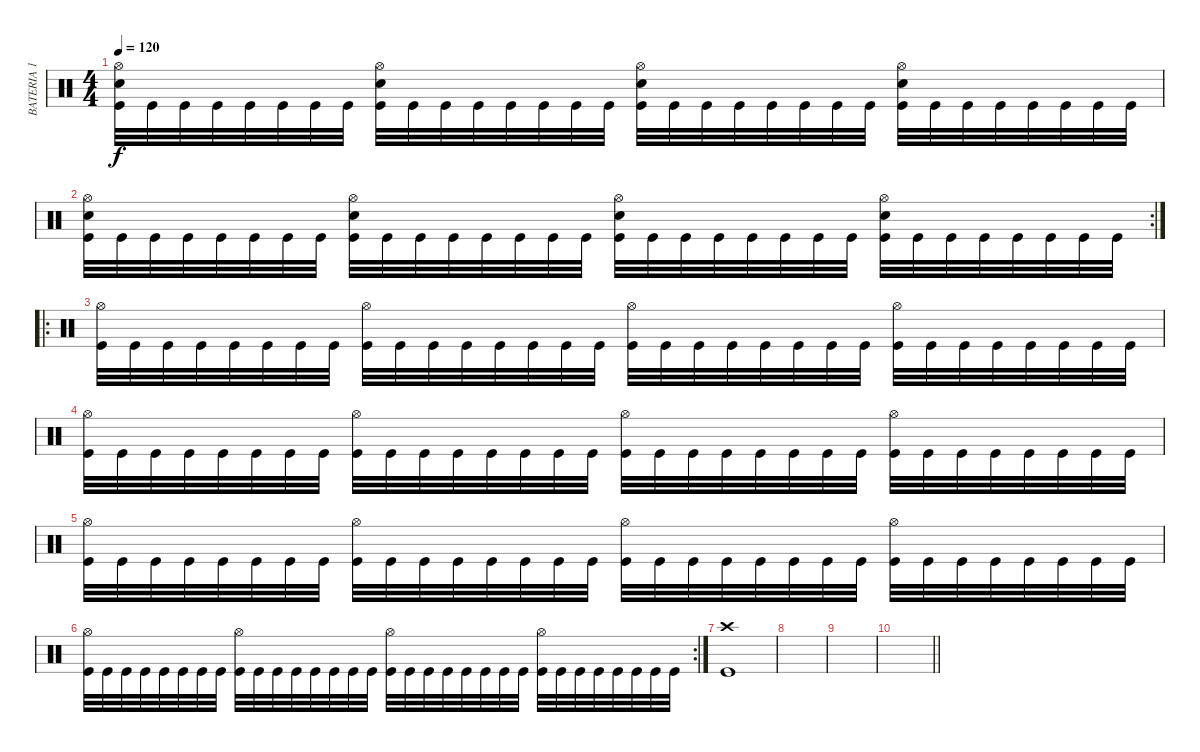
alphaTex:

\track ("BATERIA 1" "BATERIA 1") {instrument percussion}
\staff {score}
\articulation defaults
\ts (4 4)
\tempo 120
\clef neutral
\ks c
("Kick (hit)" "Snare (hit) 2" "Hi-Hat (open)").32{dy f} "Kick (hit)".32 "Kick (hit)".32 "Kick (hit)".32 "Kick (hit)".32 "Kick (hit)".32 "Kick (hit)".32 "Kick (hit)".32 ("Kick (hit)" "Snare (hit) 2" "Hi-Hat (open)").32 "Kick (hit)".32 "Kick (hit)".32 "Kick (hit)".32 "Kick (hit)".32 "Kick (hit)".32 "Kick (hit)".32 "Kick (hit)".32 ("Kick (hit)" "Snare (hit) 2" "Hi-Hat (open)").32 "Kick (hit)".32 "Kick (hit)".32 "Kick (hit)".32 "Kick (hit)".32 "Kick (hit)".32 "Kick (hit)".32 "Kick (hit)".32 ("Kick (hit)" "Snare (hit) 2" "Hi-Hat (open)").32 "Kick (hit)".32 "Kick (hit)".32 "Kick (hit)".32 "Kick (hit)".32 "Kick (hit)".32 "Kick (hit)".32 "Kick (hit)".32 |
\rc 2
("Kick (hit)" "Snare (hit) 2" "Hi-Hat (open)").32 "Kick (hit)".32 "Kick (hit)".32 "Kick (hit)".32 "Kick (hit)".32 "Kick (hit)".32 "Kick (hit)".32 "Kick (hit)".32 ("Kick (hit)" "Snare (hit) 2" "Hi-Hat (open)").32 "Kick (hit)".32 "Kick (hit)".32 "Kick (hit)".32 "Kick (hit)".32 "Kick (hit)".32 "Kick (hit)".32 "Kick (hit)".32 ("Kick (hit)" "Snare (hit) 2" "Hi-Hat (open)").32 "Kick (hit)".32 "Kick (hit)".32 "Kick (hit)".32 "Kick (hit)".32 "Kick (hit)".32 "Kick (hit)".32 "Kick (hit)".32 ("Kick (hit)" "Snare (hit) 2" "Hi-Hat (open)").32 "Kick (hit)".32 "Kick (hit)".32 "Kick (hit)".32 "Kick (hit)".32 "Kick (hit)".32 "Kick (hit)".32 "Kick (hit)".32 |
\ro
("Kick (hit)" "Hi-Hat (open)").32 "Kick (hit)".32 "Kick (hit)".32 "Kick (hit)".32 "Kick (hit)".32 "Kick (hit)".32 "Kick (hit)".32 "Kick (hit)".32 ("Kick (hit)" "Hi-Hat (open)").32 "Kick (hit)".32 "Kick (hit)".32 "Kick (hit)".32 "Kick (hit)".32 "Kick (hit)".32 "Kick (hit)".32 "Kick (hit)".32 ("Kick (hit)" "Hi-Hat (open)").32 "Kick (hit)".32 "Kick (hit)".32 "Kick (hit)".32 "Kick (hit)".32 "Kick (hit)".32 "Kick (hit)".32 "Kick (hit)".32 ("Kick (hit)" "Hi-Hat (open)").32 "Kick (hit)".32 "Kick (hit)".32 "Kick (hit)".32 "Kick (hit)".32 "Kick (hit)".32 "Kick (hit)".32 "Kick (hit)".32 |
("Kick (hit)" "Hi-Hat (open)").32 "Kick (hit)".32 "Kick (hit)".32 "Kick (hit)".32 "Kick (hit)".32 "Kick (hit)".32 "Kick (hit)".32 "Kick (hit)".32 ("Kick (hit)" "Hi-Hat (open)").32 "Kick (hit)".32 "Kick (hit)".32 "Kick (hit)".32 "Kick (hit)".32 "Kick (hit)".32 "Kick (hit)".32 "Kick (hit)".32 ("Kick (hit)" "Hi-Hat (open)").32 "Kick (hit)".32 "Kick (hit)".32 "Kick (hit)".32 "Kick (hit)".32 "Kick (hit)".32 "Kick (hit)".32 "Kick (hit)".32 ("Kick (hit)" "Hi-Hat (open)").32 "Kick (hit)".32 "Kick (hit)".32 "Kick (hit)".32 "Kick (hit)".32 "Kick (hit)".32 "Kick (hit)".32 "Kick (hit)".32 |
("Kick (hit)" "Hi-Hat (open)").32 "Kick (hit)".32 "Kick (hit)".32 "Kick (hit)".32 "Kick (hit)".32 "Kick (hit)".32 "Kick (hit)".32 "Kick (hit)".32 ("Kick (hit)" "Hi-Hat (open)").32 "Kick (hit)".32 "Kick (hit)".32 "Kick (hit)".32 "Kick (hit)".32 "Kick (hit)".32 "Kick (hit)".32 "Kick (hit)".32 ("Kick (hit)" "Hi-Hat (open)").32 "Kick (hit)".32 "Kick (hit)".32 "Kick (hit)".32 "Kick (hit)".32 "Kick (hit)".32 "Kick (hit)".32 "Kick (hit)".32 ("Kick (hit)" "Hi-Hat (open)").32 "Kick (hit)".32 "Kick (hit)".32 "Kick (hit)".32 "Kick (hit)".32 "Kick (hit)".32 "Kick (hit)".32 "Kick (hit)".32 |
\rc 2
("Kick (hit)" "Hi-Hat (open)").32 "Kick (hit)".32 "Kick (hit)".32 "Kick (hit)".32 "Kick (hit)".32 "Kick (hit)".32 "Kick (hit)".32 "Kick (hit)".32 ("Kick (hit)" "Hi-Hat (open)").32 "Kick (hit)".32 "Kick (hit)".32 "Kick (hit)".32 "Kick (hit)".32 "Kick (hit)".32 "Kick (hit)".32 "Kick (hit)".32 ("Kick (hit)" "Hi-Hat (open)").32 "Kick (hit)".32 "Kick (hit)".32 "Kick (hit)".32 "Kick (hit)".32 "Kick (hit)".32 "Kick (hit)".32 "Kick (hit)".32 ("Kick (hit)" "Hi-Hat (open)").32 "Kick (hit)".32 "Kick (hit)".32 "Kick (hit)".32 "Kick (hit)".32 "Kick (hit)".32 "Kick (hit)".32 "Kick (hit)".32 |
("Crash high (hit)" "Kick (hit)").1 |
|
|
\barLineRight lightlight
